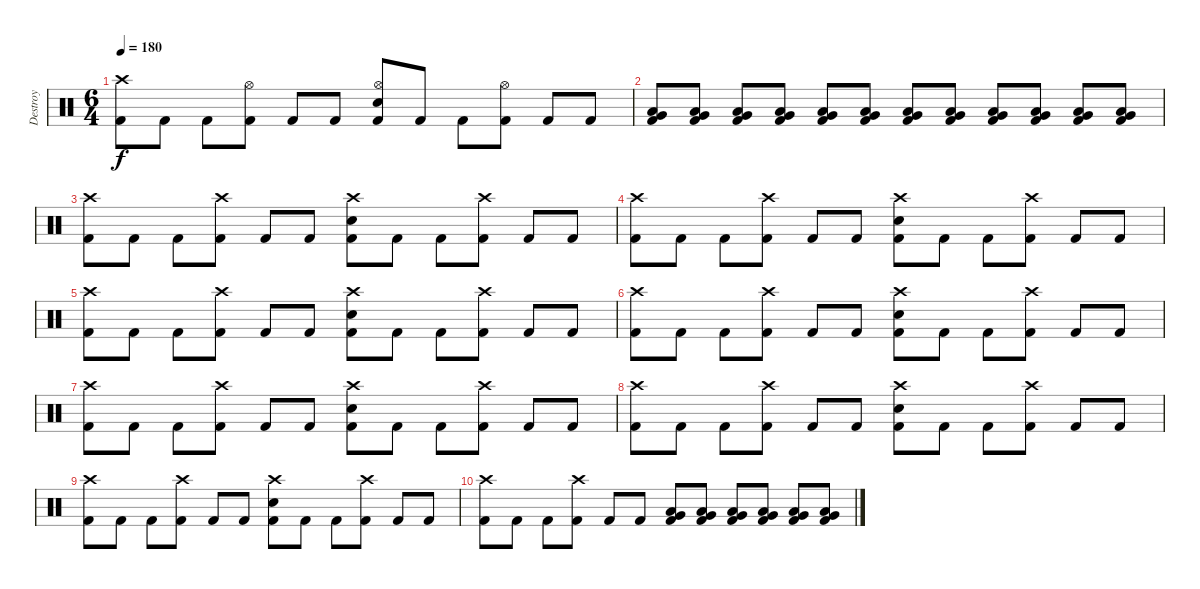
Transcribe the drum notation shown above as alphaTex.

\track ("Destroy" "Destroy") {instrument percussion}
\staff {score}
\articulation defaults
\ts (6 4)
\tempo 180
\clef neutral
\ks c
("Crash high (hit)" "Kick (hit) 2").8{dy f} "Kick (hit) 2".8 "Kick (hit) 2".8 ("Hi-Hat (open)" "Kick (hit) 2").8 "Kick (hit) 2".8 "Kick (hit) 2".8 ("Hi-Hat (open)" "Electric Snare (hit)" "Kick (hit) 2").8 "Kick (hit) 2".8 "Kick (hit) 2".8 ("Hi-Hat (open)" "Kick (hit) 2").8 "Kick (hit) 2".8 "Kick (hit) 2".8 |
("Low Floor Tom (hit)" "Very Low Tom (hit)" "Kick (hit) 2").8 ("Low Floor Tom (hit)" "Very Low Tom (hit)" "Kick (hit) 2").8 ("Low Floor Tom (hit)" "Very Low Tom (hit)" "Kick (hit) 2").8 ("Low Floor Tom (hit)" "Very Low Tom (hit)" "Kick (hit) 2").8 ("Low Floor Tom (hit)" "Very Low Tom (hit)" "Kick (hit) 2").8 ("Low Floor Tom (hit)" "Very Low Tom (hit)" "Kick (hit) 2").8 ("Low Floor Tom (hit)" "Very Low Tom (hit)" "Kick (hit) 2").8 ("Low Floor Tom (hit)" "Very Low Tom (hit)" "Kick (hit) 2").8 ("Low Floor Tom (hit)" "Very Low Tom (hit)" "Kick (hit) 2").8 ("Low Floor Tom (hit)" "Very Low Tom (hit)" "Kick (hit) 2").8 ("Low Floor Tom (hit)" "Very Low Tom (hit)" "Kick (hit) 2").8 ("Low Floor Tom (hit)" "Very Low Tom (hit)" "Kick (hit) 2").8 |
("Crash high (hit)" "Kick (hit) 2").8 "Kick (hit) 2".8 "Kick (hit) 2".8 ("Crash high (hit)" "Kick (hit) 2").8 "Kick (hit) 2".8 "Kick (hit) 2".8 ("Crash high (hit)" "Electric Snare (hit)" "Kick (hit) 2").8 "Kick (hit) 2".8 "Kick (hit) 2".8 ("Crash high (hit)" "Kick (hit) 2").8 "Kick (hit) 2".8 "Kick (hit) 2".8 |
("Crash high (hit)" "Kick (hit) 2").8 "Kick (hit) 2".8 "Kick (hit) 2".8 ("Crash high (hit)" "Kick (hit) 2").8 "Kick (hit) 2".8 "Kick (hit) 2".8 ("Crash high (hit)" "Electric Snare (hit)" "Kick (hit) 2").8 "Kick (hit) 2".8 "Kick (hit) 2".8 ("Crash high (hit)" "Kick (hit) 2").8 "Kick (hit) 2".8 "Kick (hit) 2".8 |
("Crash high (hit)" "Kick (hit) 2").8 "Kick (hit) 2".8 "Kick (hit) 2".8 ("Crash high (hit)" "Kick (hit) 2").8 "Kick (hit) 2".8 "Kick (hit) 2".8 ("Crash high (hit)" "Electric Snare (hit)" "Kick (hit) 2").8 "Kick (hit) 2".8 "Kick (hit) 2".8 ("Crash high (hit)" "Kick (hit) 2").8 "Kick (hit) 2".8 "Kick (hit) 2".8 |
("Crash high (hit)" "Kick (hit) 2").8 "Kick (hit) 2".8 "Kick (hit) 2".8 ("Crash high (hit)" "Kick (hit) 2").8 "Kick (hit) 2".8 "Kick (hit) 2".8 ("Crash high (hit)" "Electric Snare (hit)" "Kick (hit) 2").8 "Kick (hit) 2".8 "Kick (hit) 2".8 ("Crash high (hit)" "Kick (hit) 2").8 "Kick (hit) 2".8 "Kick (hit) 2".8 |
("Crash high (hit)" "Kick (hit) 2").8 "Kick (hit) 2".8 "Kick (hit) 2".8 ("Crash high (hit)" "Kick (hit) 2").8 "Kick (hit) 2".8 "Kick (hit) 2".8 ("Crash high (hit)" "Electric Snare (hit)" "Kick (hit) 2").8 "Kick (hit) 2".8 "Kick (hit) 2".8 ("Crash high (hit)" "Kick (hit) 2").8 "Kick (hit) 2".8 "Kick (hit) 2".8 |
("Crash high (hit)" "Kick (hit) 2").8 "Kick (hit) 2".8 "Kick (hit) 2".8 ("Crash high (hit)" "Kick (hit) 2").8 "Kick (hit) 2".8 "Kick (hit) 2".8 ("Crash high (hit)" "Electric Snare (hit)" "Kick (hit) 2").8 "Kick (hit) 2".8 "Kick (hit) 2".8 ("Crash high (hit)" "Kick (hit) 2").8 "Kick (hit) 2".8 "Kick (hit) 2".8 |
("Crash high (hit)" "Kick (hit) 2").8 "Kick (hit) 2".8 "Kick (hit) 2".8 ("Crash high (hit)" "Kick (hit) 2").8 "Kick (hit) 2".8 "Kick (hit) 2".8 ("Crash high (hit)" "Electric Snare (hit)" "Kick (hit) 2").8 "Kick (hit) 2".8 "Kick (hit) 2".8 ("Crash high (hit)" "Kick (hit) 2").8 "Kick (hit) 2".8 "Kick (hit) 2".8 |
("Crash high (hit)" "Kick (hit) 2").8 "Kick (hit) 2".8 "Kick (hit) 2".8 ("Crash high (hit)" "Kick (hit) 2").8 "Kick (hit) 2".8 "Kick (hit) 2".8 ("Very Low Tom (hit)" "Low Tom (hit)" "Kick (hit) 2").8 ("Very Low Tom (hit)" "Low Tom (hit)" "Kick (hit) 2").8 ("Very Low Tom (hit)" "Low Tom (hit)" "Kick (hit) 2").8 ("Very Low Tom (hit)" "Low Tom (hit)" "Kick (hit) 2").8 ("Very Low Tom (hit)" "Low Tom (hit)" "Kick (hit) 2").8 ("Very Low Tom (hit)" "Low Tom (hit)" "Kick (hit) 2").8
